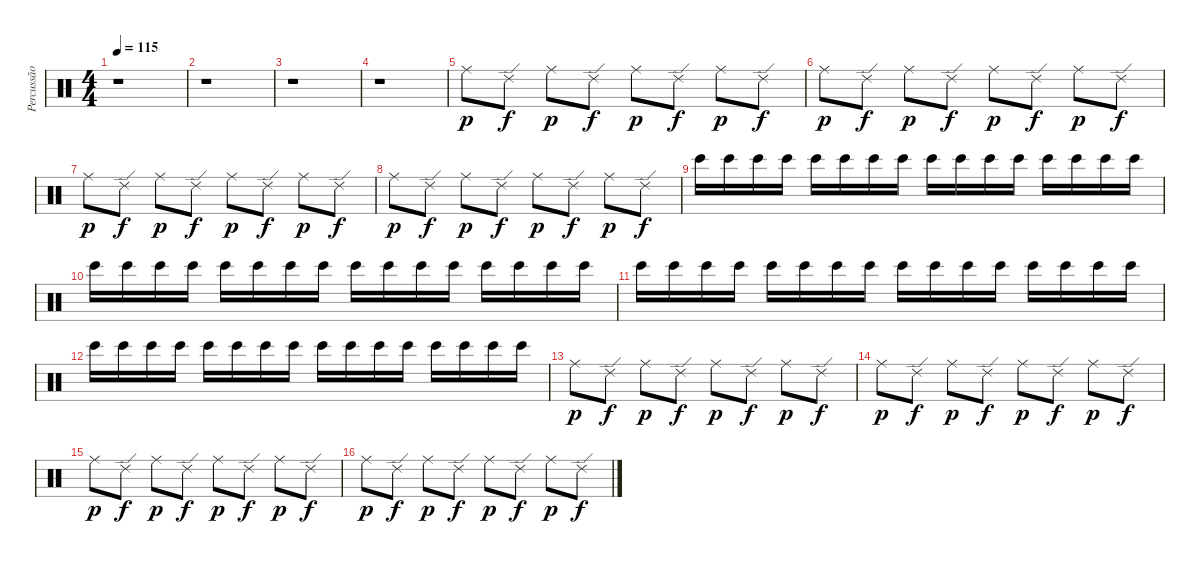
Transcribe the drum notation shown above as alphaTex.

\track ("Percussão" "Percussão") {instrument percussion}
\staff {score}
\articulation defaults
\ts (4 4)
\tempo 115
\clef neutral
\ks c
r.1{dy f} |
r.1 |
r.1 |
r.1 |
"Ride (middle)".8{dy p} "Ride (edge) 2".8{dy f} "Ride (middle)".8{dy p} "Ride (edge) 2".8{dy f} "Ride (middle)".8{dy p} "Ride (edge) 2".8{dy f} "Ride (middle)".8{dy p} "Ride (edge) 2".8{dy f} |
"Ride (middle)".8{dy p} "Ride (edge) 2".8{dy f} "Ride (middle)".8{dy p} "Ride (edge) 2".8{dy f} "Ride (middle)".8{dy p} "Ride (edge) 2".8{dy f} "Ride (middle)".8{dy p} "Ride (edge) 2".8{dy f} |
"Ride (middle)".8{dy p} "Ride (edge) 2".8{dy f} "Ride (middle)".8{dy p} "Ride (edge) 2".8{dy f} "Ride (middle)".8{dy p} "Ride (edge) 2".8{dy f} "Ride (middle)".8{dy p} "Ride (edge) 2".8{dy f} |
"Ride (middle)".8{dy p} "Ride (edge) 2".8{dy f} "Ride (middle)".8{dy p} "Ride (edge) 2".8{dy f} "Ride (middle)".8{dy p} "Ride (edge) 2".8{dy f} "Ride (middle)".8{dy p} "Ride (edge) 2".8{dy f} |
"Bongo High (hit)".16 "Bongo High (hit)".16 "Bongo High (hit)".16 "Bongo High (hit)".16 "Bongo High (hit)".16 "Bongo High (hit)".16 "Bongo High (hit)".16 "Bongo High (hit)".16 "Bongo High (hit)".16 "Bongo High (hit)".16 "Bongo High (hit)".16 "Bongo High (hit)".16 "Bongo High (hit)".16 "Bongo High (hit)".16 "Bongo High (hit)".16 "Bongo High (hit)".16 |
"Bongo High (hit)".16 "Bongo High (hit)".16 "Bongo High (hit)".16 "Bongo High (hit)".16 "Bongo High (hit)".16 "Bongo High (hit)".16 "Bongo High (hit)".16 "Bongo High (hit)".16 "Bongo High (hit)".16 "Bongo High (hit)".16 "Bongo High (hit)".16 "Bongo High (hit)".16 "Bongo High (hit)".16 "Bongo High (hit)".16 "Bongo High (hit)".16 "Bongo High (hit)".16 |
"Bongo High (hit)".16 "Bongo High (hit)".16 "Bongo High (hit)".16 "Bongo High (hit)".16 "Bongo High (hit)".16 "Bongo High (hit)".16 "Bongo High (hit)".16 "Bongo High (hit)".16 "Bongo High (hit)".16 "Bongo High (hit)".16 "Bongo High (hit)".16 "Bongo High (hit)".16 "Bongo High (hit)".16 "Bongo High (hit)".16 "Bongo High (hit)".16 "Bongo High (hit)".16 |
"Bongo High (hit)".16 "Bongo High (hit)".16 "Bongo High (hit)".16 "Bongo High (hit)".16 "Bongo High (hit)".16 "Bongo High (hit)".16 "Bongo High (hit)".16 "Bongo High (hit)".16 "Bongo High (hit)".16 "Bongo High (hit)".16 "Bongo High (hit)".16 "Bongo High (hit)".16 "Bongo High (hit)".16 "Bongo High (hit)".16 "Bongo High (hit)".16 "Bongo High (hit)".16 |
"Ride (middle)".8{dy p} "Ride (edge) 2".8{dy f} "Ride (middle)".8{dy p} "Ride (edge) 2".8{dy f} "Ride (middle)".8{dy p} "Ride (edge) 2".8{dy f} "Ride (middle)".8{dy p} "Ride (edge) 2".8{dy f} |
"Ride (middle)".8{dy p} "Ride (edge) 2".8{dy f} "Ride (middle)".8{dy p} "Ride (edge) 2".8{dy f} "Ride (middle)".8{dy p} "Ride (edge) 2".8{dy f} "Ride (middle)".8{dy p} "Ride (edge) 2".8{dy f} |
"Ride (middle)".8{dy p} "Ride (edge) 2".8{dy f} "Ride (middle)".8{dy p} "Ride (edge) 2".8{dy f} "Ride (middle)".8{dy p} "Ride (edge) 2".8{dy f} "Ride (middle)".8{dy p} "Ride (edge) 2".8{dy f} |
"Ride (middle)".8{dy p} "Ride (edge) 2".8{dy f} "Ride (middle)".8{dy p} "Ride (edge) 2".8{dy f} "Ride (middle)".8{dy p} "Ride (edge) 2".8{dy f} "Ride (middle)".8{dy p} "Ride (edge) 2".8{dy f}
